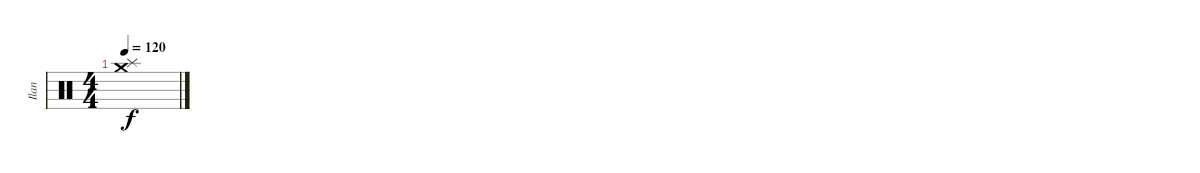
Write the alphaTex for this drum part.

\track ("Ilan" "Ilan") {instrument percussion}
\staff {score}
\articulation defaults
\ts (4 4)
\tempo 120
\clef neutral
\ks c
("Splash (hit)" "Crash medium (hit)").1{dy f}
